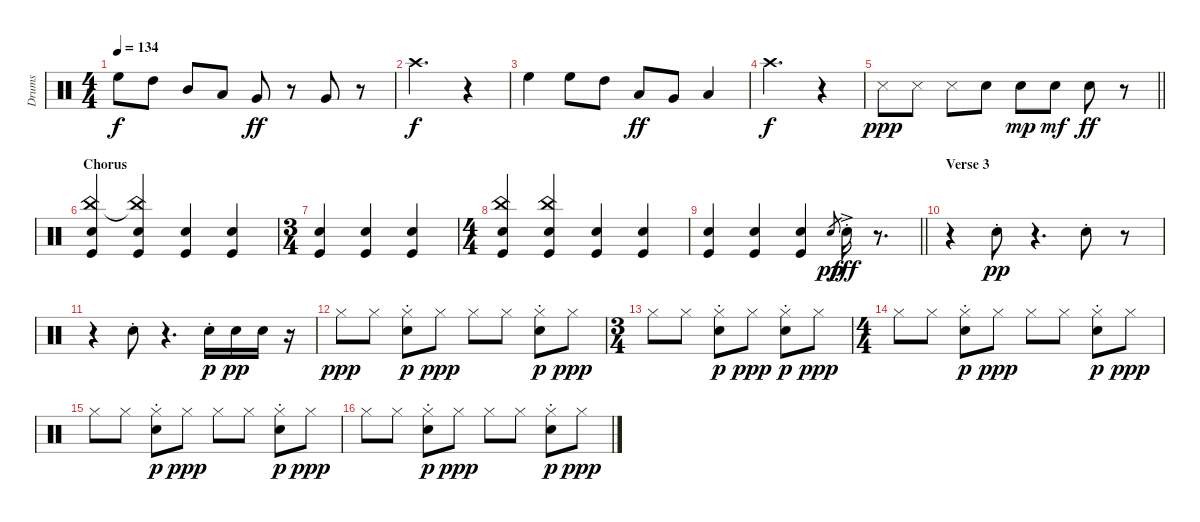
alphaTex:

\track ("Drums" "Drums") {instrument percussion}
\staff {score}
\articulation defaults
\ts (4 4)
\tempo 134
\clef neutral
\ks c "High Floor Tom (hit)".8{dy f} "High Tom (hit)".8 "Mid Tom (hit)".8 "Low Tom (hit)".8 "Very Low Tom (hit)".8{dy ff}
r.8 "Very Low Tom (hit)".8 r.8 |
"Crash high (hit)".2{d dy f} r.4 |
"High Floor Tom (hit)".4 "High Floor Tom (hit)".8 "High Tom (hit)".8 "Low Tom (hit)".8{dy ff} "Very Low Tom (hit)".8 "Low Floor Tom (hit)".4 |
"Crash high (hit)".2{d dy f} r.4 |
\barLineRight lightlight "Snare (side stick) 3".8{dy ppp} "Snare (side stick) 3".8 "Snare (side stick) 3".8 "Snare (hit) 2".8 "Snare (hit) 2".8{dy mp} "Snare (hit) 2".8{dy mf} "Snare (hit) 2".8{dy ff}
r.8 |
\section ("" "Chorus")
("China (hit)" "Snare (hit) 2" "Kick (hit)").4 ("China (hit)"{t} "Snare (hit) 2" "Kick (hit)").4 ("Snare (hit) 2" "Kick (hit)").4 ("Snare (hit) 2" "Kick (hit)").4 |
\ts (3 4)
("Snare (hit) 2" "Kick (hit)").4 ("Snare (hit) 2" "Kick (hit)").4 ("Snare (hit) 2" "Kick (hit)").4 |
\ts (4 4)
("China (hit)" "Snare (hit) 2" "Kick (hit)").4 ("China (hit)" "Snare (hit) 2" "Kick (hit)").4 ("Snare (hit) 2" "Kick (hit)").4 ("Snare (hit) 2" "Kick (hit)").4 |
\barLineRight lightlight
("Snare (hit) 2" "Kick (hit)").4 ("Snare (hit) 2" "Kick (hit)").4 ("Snare (hit) 2" "Kick (hit)").4 "Snare (hit) 2".8{gr dy pp} "Snare (hit) 2"{ac st}.16{dy fff} r.8{d} |
\section ("" "Verse 3")
r.4 "Snare (hit) 2"{st}.8{dy pp} r.4{d} "Snare (hit) 2"{st}.8 r.8 |
r.4 "Snare (hit) 2"{st}.8 r.4{d} "Snare (hit) 2"{st}.16{dy p} "Snare (hit) 2".16{dy pp} "Snare (hit) 2".16 r.16 |
"Hi-Hat (closed)".8{dy ppp} "Hi-Hat (closed)".8 ("Hi-Hat (closed)" "Snare (hit) 2"{st}).8{dy p} "Hi-Hat (closed)".8{dy ppp} "Hi-Hat (closed)".8 "Hi-Hat (closed)".8 ("Hi-Hat (closed)" "Snare (hit) 2"{st}).8{dy p} "Hi-Hat (closed)".8{dy ppp} |
\ts (3 4)
"Hi-Hat (closed)".8 "Hi-Hat (closed)".8 ("Hi-Hat (closed)" "Snare (hit) 2"{st}).8{dy p} "Hi-Hat (closed)".8{dy ppp} ("Hi-Hat (closed)" "Snare (hit) 2"{st}).8{dy p} "Hi-Hat (closed)".8{dy ppp} |
\ts (4 4)
"Hi-Hat (closed)".8 "Hi-Hat (closed)".8 ("Hi-Hat (closed)" "Snare (hit) 2"{st}).8{dy p} "Hi-Hat (closed)".8{dy ppp} "Hi-Hat (closed)".8 "Hi-Hat (closed)".8 ("Hi-Hat (closed)" "Snare (hit) 2"{st}).8{dy p} "Hi-Hat (closed)".8{dy ppp} |
"Hi-Hat (closed)".8 "Hi-Hat (closed)".8 ("Hi-Hat (closed)" "Snare (hit) 2"{st}).8{dy p} "Hi-Hat (closed)".8{dy ppp} "Hi-Hat (closed)".8 "Hi-Hat (closed)".8 ("Hi-Hat (closed)" "Snare (hit) 2"{st}).8{dy p} "Hi-Hat (closed)".8{dy ppp} |
"Hi-Hat (closed)".8 "Hi-Hat (closed)".8 ("Hi-Hat (closed)" "Snare (hit) 2"{st}).8{dy p} "Hi-Hat (closed)".8{dy ppp} "Hi-Hat (closed)".8 "Hi-Hat (closed)".8 ("Hi-Hat (closed)" "Snare (hit) 2"{st}).8{dy p} "Hi-Hat (closed)".8{dy ppp}
